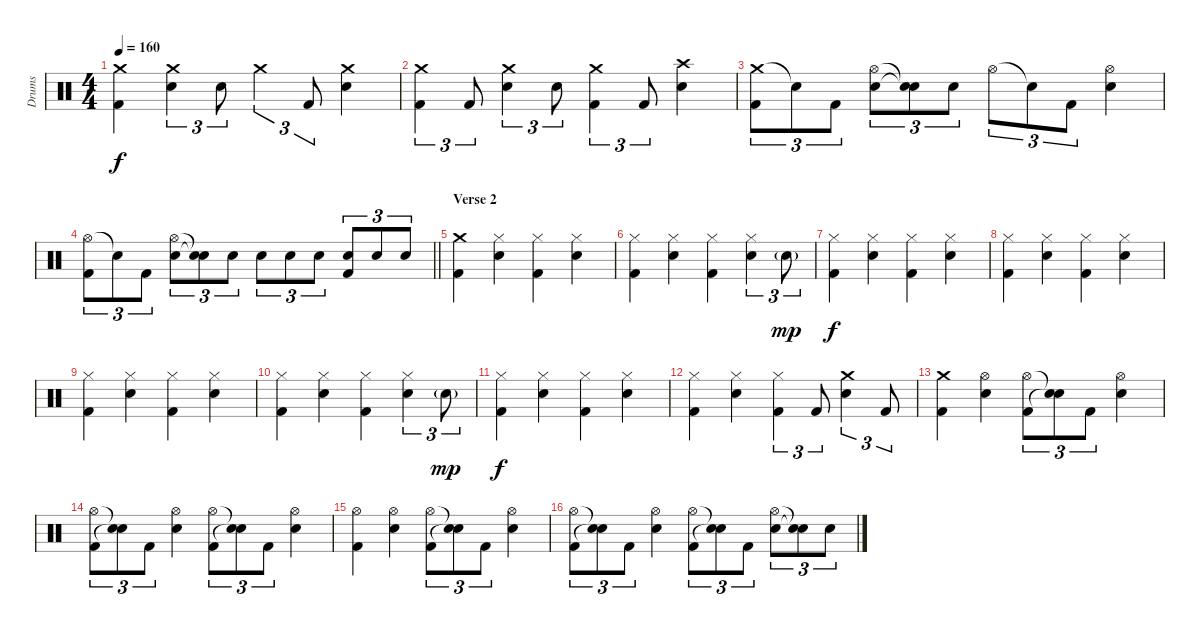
\track ("Drums" "Drums") {instrument percussion}
\staff {score}
\articulation defaults
\ts (4 4)
\tempo 160
\clef neutral
\ks c
("Crash medium (hit)" "Kick (hit) 2").4{dy f} ("Crash medium (hit)" "Electric Snare (hit)").4{tu (3 2)} "Electric Snare (hit)".8{tu (3 2)} "Crash medium (hit)".4{tu (3 2)} "Kick (hit) 2".8{tu (3 2)} ("Crash medium (hit)" "Electric Snare (hit)").4 |
("Crash medium (hit)" "Kick (hit) 2").4{tu (3 2)} "Kick (hit) 2".8{tu (3 2)} ("Crash medium (hit)" "Electric Snare (hit)").4{tu (3 2)} "Electric Snare (hit)".8{tu (3 2)} ("Crash medium (hit)" "Kick (hit) 2").4{tu (3 2)} "Kick (hit) 2".8{tu (3 2)} ("Crash high (hit)" "Electric Snare (hit)").4 |
("Crash medium (hit)" "Kick (hit) 2").8{tu (3 2)} "Snare (hit)"{t}.8{tu (3 2)} "Kick (hit) 2".8{tu (3 2)} ("Hi-Hat (open)" "Electric Snare (hit)").8{tu (3 2)} ("Snare (hit)"{t} "Snare (hit)"{t}).8{tu (3 2)} "Electric Snare (hit)".8{tu (3 2)} "Hi-Hat (open)".8{tu (3 2)} "Snare (hit)"{t}.8{tu (3 2)} "Kick (hit) 2".8{tu (3 2)} ("Hi-Hat (open)" "Electric Snare (hit)").4 |
\barLineRight lightlight
("Hi-Hat (open)" "Kick (hit) 2").8{tu (3 2)} "Snare (hit)"{t}.8{tu (3 2)} "Kick (hit) 2".8{tu (3 2)} ("Hi-Hat (open)" "Electric Snare (hit)").8{tu (3 2)} ("Snare (hit)"{t} "Snare (hit)"{t}).8{tu (3 2)} "Electric Snare (hit)".8{tu (3 2)} "Electric Snare (hit)".8{tu (3 2)} "Electric Snare (hit)".8{tu (3 2)} "Electric Snare (hit)".8{tu (3 2)} ("Electric Snare (hit)" "Kick (hit) 2").8{tu (3 2)} "Electric Snare (hit)".8{tu (3 2)} "Electric Snare (hit)".8{tu (3 2)} |
\section ("" "Verse 2")
("Crash medium (hit)" "Kick (hit) 2").4 ("Hi-Hat (closed)" "Electric Snare (hit)").4 ("Hi-Hat (closed)" "Kick (hit) 2").4 ("Hi-Hat (closed)" "Electric Snare (hit)").4 |
("Hi-Hat (closed)" "Kick (hit) 2").4 ("Hi-Hat (closed)" "Electric Snare (hit)").4 ("Hi-Hat (closed)" "Kick (hit) 2").4 ("Hi-Hat (closed)" "Electric Snare (hit)").4{tu (3 2)} "Electric Snare (hit)"{g}.8{tu (3 2) dy mp} |
("Hi-Hat (closed)" "Kick (hit) 2").4{dy f} ("Hi-Hat (closed)" "Electric Snare (hit)").4 ("Hi-Hat (closed)" "Kick (hit) 2").4 ("Hi-Hat (closed)" "Electric Snare (hit)").4 |
("Hi-Hat (closed)" "Kick (hit) 2").4 ("Hi-Hat (closed)" "Electric Snare (hit)").4 ("Hi-Hat (closed)" "Kick (hit) 2").4 ("Hi-Hat (closed)" "Electric Snare (hit)").4 |
("Hi-Hat (closed)" "Kick (hit) 2").4 ("Hi-Hat (closed)" "Electric Snare (hit)").4 ("Hi-Hat (closed)" "Kick (hit) 2").4 ("Hi-Hat (closed)" "Electric Snare (hit)").4 |
("Hi-Hat (closed)" "Kick (hit) 2").4 ("Hi-Hat (closed)" "Electric Snare (hit)").4 ("Hi-Hat (closed)" "Kick (hit) 2").4 ("Hi-Hat (closed)" "Electric Snare (hit)").4{tu (3 2)} "Electric Snare (hit)"{g}.8{tu (3 2) dy mp} |
("Hi-Hat (closed)" "Kick (hit) 2").4{dy f} ("Hi-Hat (closed)" "Electric Snare (hit)").4 ("Hi-Hat (closed)" "Kick (hit) 2").4 ("Hi-Hat (closed)" "Electric Snare (hit)").4 |
("Hi-Hat (closed)" "Kick (hit) 2").4 ("Hi-Hat (closed)" "Electric Snare (hit)").4 ("Hi-Hat (closed)" "Kick (hit) 2").4{tu (3 2)} "Kick (hit) 2".8{tu (3 2)} ("Crash medium (hit)" "Electric Snare (hit)").4{tu (3 2)} "Kick (hit) 2".8{tu (3 2)} |
("Crash medium (hit)" "Kick (hit) 2").4 ("Hi-Hat (open)" "Electric Snare (hit)").4 ("Hi-Hat (open)" "Kick (hit) 2").8{tu (3 2)} ("Snare (hit)"{t} "Snare (hit)"{t}).8{tu (3 2)} "Kick (hit) 2".8{tu (3 2)} ("Hi-Hat (open)" "Electric Snare (hit)").4 |
("Hi-Hat (open)" "Kick (hit) 2").8{tu (3 2)} ("Snare (hit)"{t} "Snare (hit)"{t}).8{tu (3 2)} "Kick (hit) 2".8{tu (3 2)} ("Hi-Hat (open)" "Electric Snare (hit)").4 ("Hi-Hat (open)" "Kick (hit) 2").8{tu (3 2)} ("Snare (hit)"{t} "Snare (hit)"{t}).8{tu (3 2)} "Kick (hit) 2".8{tu (3 2)} ("Hi-Hat (open)" "Electric Snare (hit)").4 |
("Hi-Hat (open)" "Kick (hit) 2").4 ("Hi-Hat (open)" "Electric Snare (hit)").4 ("Hi-Hat (open)" "Kick (hit) 2").8{tu (3 2)} ("Snare (hit)"{t} "Snare (hit)"{t}).8{tu (3 2)} "Kick (hit) 2".8{tu (3 2)} ("Hi-Hat (open)" "Electric Snare (hit)").4 |
("Hi-Hat (open)" "Kick (hit) 2").8{tu (3 2)} ("Snare (hit)"{t} "Snare (hit)"{t}).8{tu (3 2)} "Kick (hit) 2".8{tu (3 2)} ("Hi-Hat (open)" "Electric Snare (hit)").4 ("Hi-Hat (open)" "Kick (hit) 2").8{tu (3 2)} ("Snare (hit)"{t} "Snare (hit)"{t}).8{tu (3 2)} "Kick (hit) 2".8{tu (3 2)} ("Hi-Hat (open)" "Electric Snare (hit)").8{tu (3 2)} ("Snare (hit)"{t} "Snare (hit)"{t}).8{tu (3 2)} "Electric Snare (hit)".8{tu (3 2)}
